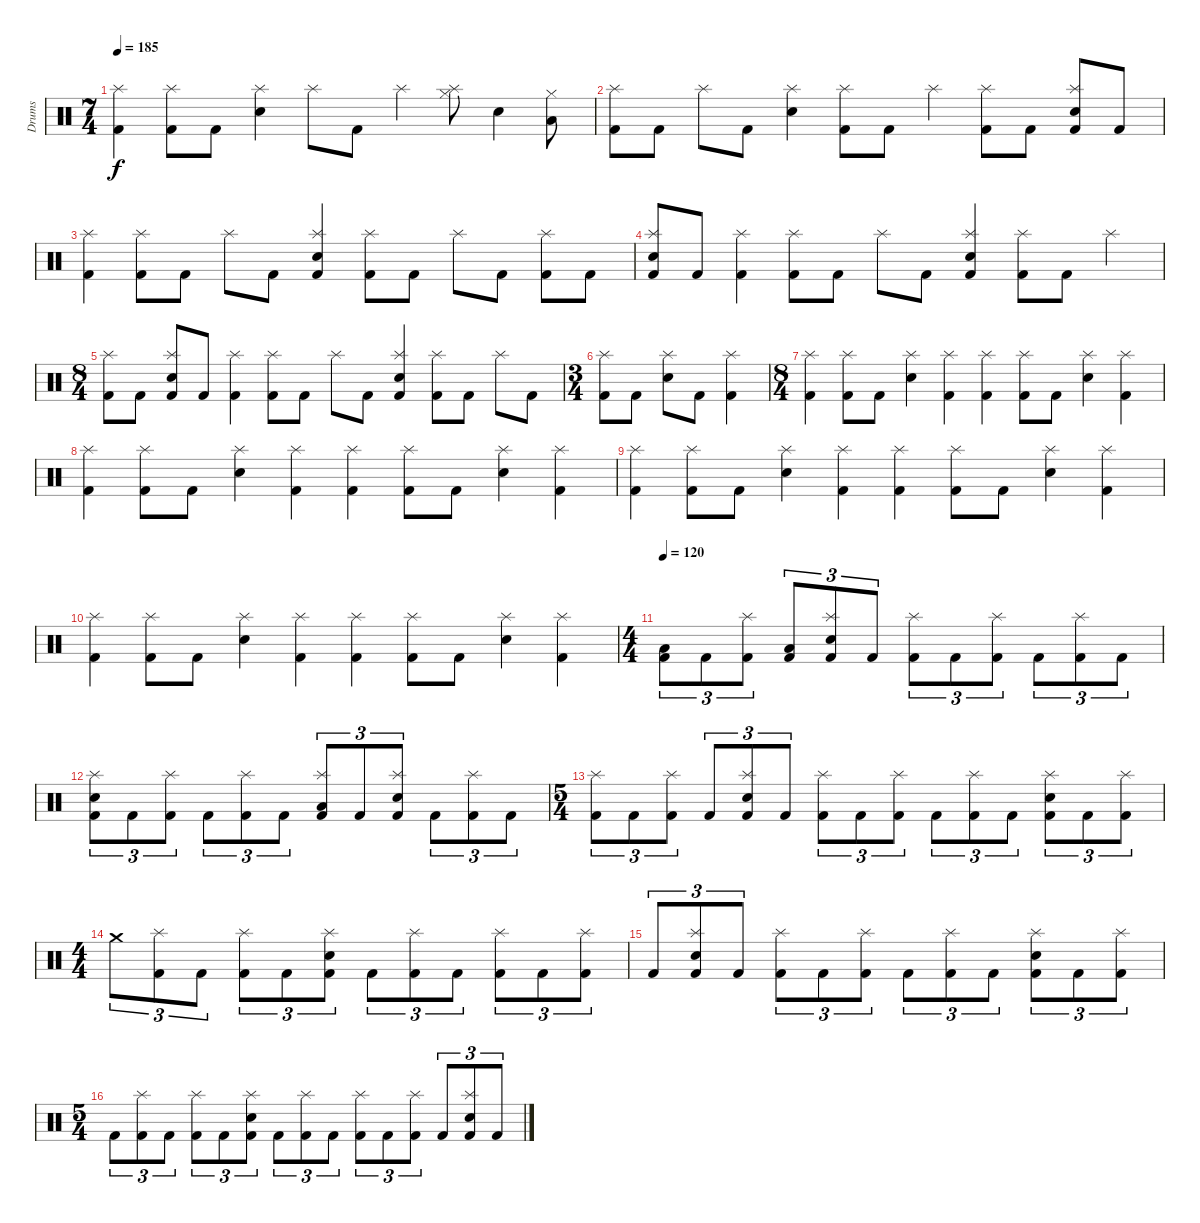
\track ("Drums" "Drums") {instrument percussion}
\staff {score}
\articulation defaults
\ts (7 4)
\tempo 185
\clef neutral
\ks c
("Kick (hit) 2" "Splash (hit)").4{dy f} ("Splash (hit)" "Kick (hit) 2").8 "Kick (hit) 2".8 ("Splash (hit)" "Electric Snare (hit)").4 "Splash (hit)".8 "Kick (hit) 2".8 "Splash (hit)".4 ("Splash (hit)" "Hi-Hat (closed)").8 "Electric Snare (hit)".4 ("Hi-Hat (closed)" "Low Tom (hit)").8 |
("Splash (hit)" "Kick (hit) 2").8 "Kick (hit) 2".8 "Splash (hit)".8 "Kick (hit) 2".8 ("Splash (hit)" "Electric Snare (hit)").4 ("Splash (hit)" "Kick (hit) 2").8 "Kick (hit) 2".8 "Splash (hit)".4 ("Splash (hit)" "Kick (hit) 2").8 "Kick (hit) 2".8 ("Splash (hit)" "Electric Snare (hit)" "Kick (hit) 2").8 "Kick (hit) 2".8 |
("Splash (hit)" "Kick (hit) 2").4 ("Splash (hit)" "Kick (hit) 2").8 "Kick (hit) 2".8 "Splash (hit)".8 "Kick (hit) 2".8 ("Electric Snare (hit)" "Splash (hit)" "Kick (hit) 2").4 ("Splash (hit)" "Kick (hit) 2").8 "Kick (hit) 2".8 "Splash (hit)".8 "Kick (hit) 2".8 ("Splash (hit)" "Kick (hit) 2").8 "Kick (hit) 2".8 |
("Splash (hit)" "Electric Snare (hit)" "Kick (hit) 2").8 "Kick (hit) 2".8 ("Splash (hit)" "Kick (hit) 2").4 ("Splash (hit)" "Kick (hit) 2").8 "Kick (hit) 2".8 "Splash (hit)".8 "Kick (hit) 2".8 ("Electric Snare (hit)" "Splash (hit)" "Kick (hit) 2").4 ("Splash (hit)" "Kick (hit) 2").8 "Kick (hit) 2".8 "Splash (hit)".4 |
\ts (8 4)
("Splash (hit)" "Kick (hit) 2").8 "Kick (hit) 2".8 ("Splash (hit)" "Electric Snare (hit)" "Kick (hit) 2").8 "Kick (hit) 2".8 ("Splash (hit)" "Kick (hit) 2").4 ("Splash (hit)" "Kick (hit) 2").8 "Kick (hit) 2".8 "Splash (hit)".8 "Kick (hit) 2".8 ("Splash (hit)" "Electric Snare (hit)" "Kick (hit) 2").4 ("Splash (hit)" "Kick (hit) 2").8 "Kick (hit) 2".8 "Splash (hit)".8 "Kick (hit) 2".8 |
\ts (3 4)
("Splash (hit)" "Kick (hit) 2").8 "Kick (hit) 2".8 ("Splash (hit)" "Electric Snare (hit)").8 "Kick (hit) 2".8 ("Splash (hit)" "Kick (hit) 2").4 |
\ts (8 4)
("Splash (hit)" "Kick (hit) 2").4 ("Splash (hit)" "Kick (hit) 2").8 "Kick (hit) 2".8 ("Splash (hit)" "Electric Snare (hit)").4 ("Splash (hit)" "Kick (hit) 2").4 ("Splash (hit)" "Kick (hit) 2").4 ("Splash (hit)" "Kick (hit) 2").8 "Kick (hit) 2".8 ("Splash (hit)" "Electric Snare (hit)").4 ("Splash (hit)" "Kick (hit) 2").4 |
("Splash (hit)" "Kick (hit) 2").4 ("Splash (hit)" "Kick (hit) 2").8 "Kick (hit) 2".8 ("Splash (hit)" "Electric Snare (hit)").4 ("Splash (hit)" "Kick (hit) 2").4 ("Splash (hit)" "Kick (hit) 2").4 ("Splash (hit)" "Kick (hit) 2").8 "Kick (hit) 2".8 ("Splash (hit)" "Electric Snare (hit)").4 ("Splash (hit)" "Kick (hit) 2").4 |
("Splash (hit)" "Kick (hit) 2").4 ("Splash (hit)" "Kick (hit) 2").8 "Kick (hit) 2".8 ("Splash (hit)" "Electric Snare (hit)").4 ("Splash (hit)" "Kick (hit) 2").4 ("Splash (hit)" "Kick (hit) 2").4 ("Splash (hit)" "Kick (hit) 2").8 "Kick (hit) 2".8 ("Splash (hit)" "Electric Snare (hit)").4 ("Splash (hit)" "Kick (hit) 2").4 |
("Splash (hit)" "Kick (hit) 2").4 ("Splash (hit)" "Kick (hit) 2").8 "Kick (hit) 2".8 ("Splash (hit)" "Electric Snare (hit)").4 ("Splash (hit)" "Kick (hit) 2").4 ("Splash (hit)" "Kick (hit) 2").4 ("Splash (hit)" "Kick (hit) 2").8 "Kick (hit) 2".8 ("Splash (hit)" "Electric Snare (hit)").4 ("Splash (hit)" "Kick (hit) 2").4 |
\ts (4 4)
\tempo 120
("Low Tom (hit)" "Kick (hit) 2").8{tu (3 2)} "Kick (hit) 2".8{tu (3 2)} ("Splash (hit)" "Kick (hit) 2").8{tu (3 2)} ("Low Tom (hit)" "Kick (hit) 2").8{tu (3 2)} ("Electric Snare (hit)" "Splash (hit)" "Kick (hit) 2").8{tu (3 2)} "Kick (hit) 2".8{tu (3 2)} ("Splash (hit)" "Kick (hit) 2").8{tu (3 2)} "Kick (hit) 2".8{tu (3 2)} ("Splash (hit)" "Kick (hit) 2").8{tu (3 2)} "Kick (hit) 2".8{tu (3 2)} ("Splash (hit)" "Kick (hit) 2").8{tu (3 2)} "Kick (hit) 2".8{tu (3 2)} |
("Electric Snare (hit)" "Splash (hit)" "Kick (hit) 2").8{tu (3 2)} "Kick (hit) 2".8{tu (3 2)} ("Splash (hit)" "Kick (hit) 2").8{tu (3 2)} "Kick (hit) 2".8{tu (3 2)} ("Splash (hit)" "Kick (hit) 2").8{tu (3 2)} "Kick (hit) 2".8{tu (3 2)} ("Low Tom (hit)" "Splash (hit)" "Kick (hit) 2").8{tu (3 2)} "Kick (hit) 2".8{tu (3 2)} ("Electric Snare (hit)" "Splash (hit)" "Kick (hit) 2").8{tu (3 2)} "Kick (hit) 2".8{tu (3 2)} ("Splash (hit)" "Kick (hit) 2").8{tu (3 2)} "Kick (hit) 2".8{tu (3 2)} |
\ts (5 4)
("Splash (hit)" "Kick (hit) 2").8{tu (3 2)} "Kick (hit) 2".8{tu (3 2)} ("Splash (hit)" "Kick (hit) 2").8{tu (3 2)} "Kick (hit) 2".8{tu (3 2)} ("Splash (hit)" "Electric Snare (hit)" "Kick (hit) 2").8{tu (3 2)} "Kick (hit) 2".8{tu (3 2)} ("Splash (hit)" "Kick (hit) 2").8{tu (3 2)} "Kick (hit) 2".8{tu (3 2)} ("Splash (hit)" "Kick (hit) 2").8{tu (3 2)} "Kick (hit) 2".8{tu (3 2)} ("Splash (hit)" "Kick (hit) 2").8{tu (3 2)} "Kick (hit) 2".8{tu (3 2)} ("Splash (hit)" "Electric Snare (hit)" "Kick (hit) 2").8{tu (3 2)} "Kick (hit) 2".8{tu (3 2)} ("Splash (hit)" "Kick (hit) 2").8{tu (3 2)} |
\ts (4 4)
"Crash medium (hit)".8{tu (3 2)} ("Splash (hit)" "Kick (hit) 2").8{tu (3 2)} "Kick (hit) 2".8{tu (3 2)} ("Splash (hit)" "Kick (hit) 2").8{tu (3 2)} "Kick (hit) 2".8{tu (3 2)} ("Splash (hit)" "Electric Snare (hit)" "Kick (hit) 2").8{tu (3 2)} "Kick (hit) 2".8{tu (3 2)} ("Splash (hit)" "Kick (hit) 2").8{tu (3 2)} "Kick (hit) 2".8{tu (3 2)} ("Splash (hit)" "Kick (hit) 2").8{tu (3 2)} "Kick (hit) 2".8{tu (3 2)} ("Splash (hit)" "Kick (hit) 2").8{tu (3 2)} |
"Kick (hit) 2".8{tu (3 2)} ("Splash (hit)" "Electric Snare (hit)" "Kick (hit) 2").8{tu (3 2)} "Kick (hit) 2".8{tu (3 2)} ("Splash (hit)" "Kick (hit) 2").8{tu (3 2)} "Kick (hit) 2".8{tu (3 2)} ("Splash (hit)" "Kick (hit) 2").8{tu (3 2)} "Kick (hit) 2".8{tu (3 2)} ("Splash (hit)" "Kick (hit) 2").8{tu (3 2)} "Kick (hit) 2".8{tu (3 2)} ("Splash (hit)" "Electric Snare (hit)" "Kick (hit) 2").8{tu (3 2)} "Kick (hit) 2".8{tu (3 2)} ("Splash (hit)" "Kick (hit) 2").8{tu (3 2)} |
\ts (5 4)
"Kick (hit) 2".8{tu (3 2)} ("Splash (hit)" "Kick (hit) 2").8{tu (3 2)} "Kick (hit) 2".8{tu (3 2)} ("Splash (hit)" "Kick (hit) 2").8{tu (3 2)} "Kick (hit) 2".8{tu (3 2)} ("Splash (hit)" "Electric Snare (hit)" "Kick (hit) 2").8{tu (3 2)} "Kick (hit) 2".8{tu (3 2)} ("Splash (hit)" "Kick (hit) 2").8{tu (3 2)} "Kick (hit) 2".8{tu (3 2)} ("Splash (hit)" "Kick (hit) 2").8{tu (3 2)} "Kick (hit) 2".8{tu (3 2)} ("Splash (hit)" "Kick (hit) 2").8{tu (3 2)} "Kick (hit) 2".8{tu (3 2)} ("Splash (hit)" "Electric Snare (hit)" "Kick (hit) 2").8{tu (3 2)} "Kick (hit) 2".8{tu (3 2)}
